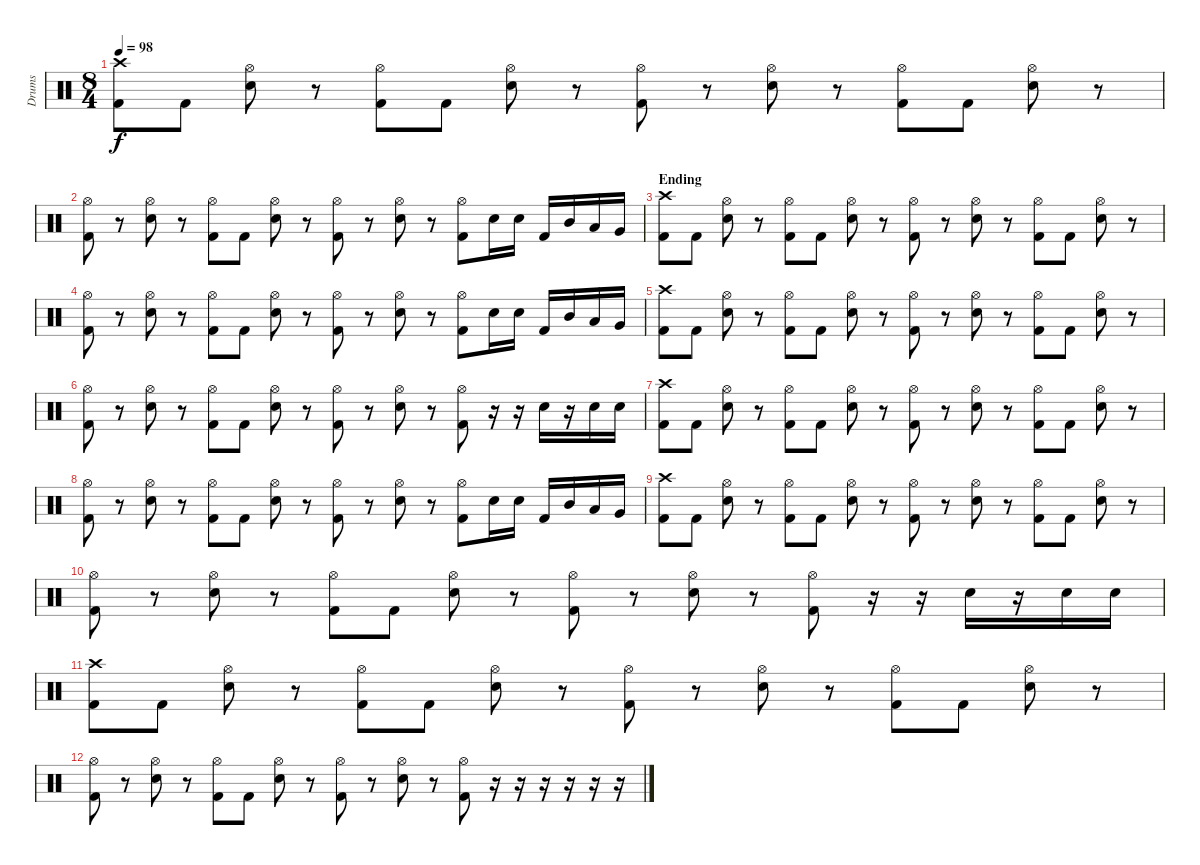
\track ("Drums" "Drums") {instrument percussion}
\staff {score}
\articulation defaults
\ts (8 4)
\tempo 98
\clef neutral
\ks c
("Crash high (hit)" "Kick (hit) 2").8{dy f} "Kick (hit) 2".8 ("Hi-Hat (open)" "Electric Snare (hit)").8 r.8 ("Hi-Hat (open)" "Kick (hit) 2").8 "Kick (hit) 2".8 ("Hi-Hat (open)" "Electric Snare (hit)").8 r.8 ("Hi-Hat (open)" "Kick (hit) 2").8 r.8 ("Hi-Hat (open)" "Electric Snare (hit)").8 r.8 ("Hi-Hat (open)" "Kick (hit) 2").8 "Kick (hit) 2".8 ("Hi-Hat (open)" "Electric Snare (hit)").8 r.8 |
("Hi-Hat (open)" "Kick (hit) 2").8 r.8 ("Hi-Hat (open)" "Electric Snare (hit)").8 r.8 ("Hi-Hat (open)" "Kick (hit) 2").8 "Kick (hit) 2".8 ("Hi-Hat (open)" "Electric Snare (hit)").8 r.8 ("Hi-Hat (open)" "Kick (hit) 2").8 r.8 ("Hi-Hat (open)" "Electric Snare (hit)").8 r.8 ("Hi-Hat (open)" "Kick (hit) 2").8 "Electric Snare (hit)".16 "Electric Snare (hit)".16 "Kick (hit) 2".16 "Mid Tom (hit)".16 "Low Tom (hit)".16 "Very Low Tom (hit)".16 |
\section ("" "Ending")
("Crash high (hit)" "Kick (hit) 2").8 "Kick (hit) 2".8 ("Hi-Hat (open)" "Electric Snare (hit)").8 r.8 ("Hi-Hat (open)" "Kick (hit) 2").8 "Kick (hit) 2".8 ("Hi-Hat (open)" "Electric Snare (hit)").8 r.8 ("Hi-Hat (open)" "Kick (hit) 2").8 r.8 ("Hi-Hat (open)" "Electric Snare (hit)").8 r.8 ("Hi-Hat (open)" "Kick (hit) 2").8 "Kick (hit) 2".8 ("Hi-Hat (open)" "Electric Snare (hit)").8 r.8 |
("Hi-Hat (open)" "Kick (hit) 2").8 r.8 ("Hi-Hat (open)" "Electric Snare (hit)").8 r.8 ("Hi-Hat (open)" "Kick (hit) 2").8 "Kick (hit) 2".8 ("Hi-Hat (open)" "Electric Snare (hit)").8 r.8 ("Hi-Hat (open)" "Kick (hit) 2").8 r.8 ("Hi-Hat (open)" "Electric Snare (hit)").8 r.8 ("Hi-Hat (open)" "Kick (hit) 2").8 "Electric Snare (hit)".16 "Electric Snare (hit)".16 "Kick (hit) 2".16 "Mid Tom (hit)".16 "Low Tom (hit)".16 "Very Low Tom (hit)".16 |
("Crash high (hit)" "Kick (hit) 2").8 "Kick (hit) 2".8 ("Hi-Hat (open)" "Electric Snare (hit)").8 r.8 ("Hi-Hat (open)" "Kick (hit) 2").8 "Kick (hit) 2".8 ("Hi-Hat (open)" "Electric Snare (hit)").8 r.8 ("Hi-Hat (open)" "Kick (hit) 2").8 r.8 ("Hi-Hat (open)" "Electric Snare (hit)").8 r.8 ("Hi-Hat (open)" "Kick (hit) 2").8 "Kick (hit) 2".8 ("Hi-Hat (open)" "Electric Snare (hit)").8 r.8 |
("Hi-Hat (open)" "Kick (hit) 2").8 r.8 ("Hi-Hat (open)" "Electric Snare (hit)").8 r.8 ("Hi-Hat (open)" "Kick (hit) 2").8 "Kick (hit) 2".8 ("Hi-Hat (open)" "Electric Snare (hit)").8 r.8 ("Hi-Hat (open)" "Kick (hit) 2").8 r.8 ("Hi-Hat (open)" "Electric Snare (hit)").8 r.8 ("Hi-Hat (open)" "Kick (hit) 2").8 r.16 r.16 "Electric Snare (hit)".16 r.16 "Electric Snare (hit)".16 "Electric Snare (hit)".16 |
("Crash high (hit)" "Kick (hit) 2").8{volume 11} "Kick (hit) 2".8 ("Hi-Hat (open)" "Electric Snare (hit)").8 r.8 ("Hi-Hat (open)" "Kick (hit) 2").8 "Kick (hit) 2".8 ("Hi-Hat (open)" "Electric Snare (hit)").8 r.8 ("Hi-Hat (open)" "Kick (hit) 2").8 r.8 ("Hi-Hat (open)" "Electric Snare (hit)").8 r.8 ("Hi-Hat (open)" "Kick (hit) 2").8 "Kick (hit) 2".8 ("Hi-Hat (open)" "Electric Snare (hit)").8 r.8 |
("Hi-Hat (open)" "Kick (hit) 2").8{volume 9} r.8 ("Hi-Hat (open)" "Electric Snare (hit)").8 r.8 ("Hi-Hat (open)" "Kick (hit) 2").8 "Kick (hit) 2".8 ("Hi-Hat (open)" "Electric Snare (hit)").8 r.8 ("Hi-Hat (open)" "Kick (hit) 2").8 r.8 ("Hi-Hat (open)" "Electric Snare (hit)").8 r.8 ("Hi-Hat (open)" "Kick (hit) 2").8 "Electric Snare (hit)".16 "Electric Snare (hit)".16 "Kick (hit) 2".16 "Mid Tom (hit)".16 "Low Tom (hit)".16 "Very Low Tom (hit)".16 |
("Crash high (hit)" "Kick (hit) 2").8{volume 7} "Kick (hit) 2".8 ("Hi-Hat (open)" "Electric Snare (hit)").8 r.8 ("Hi-Hat (open)" "Kick (hit) 2").8 "Kick (hit) 2".8 ("Hi-Hat (open)" "Electric Snare (hit)").8 r.8 ("Hi-Hat (open)" "Kick (hit) 2").8 r.8 ("Hi-Hat (open)" "Electric Snare (hit)").8 r.8 ("Hi-Hat (open)" "Kick (hit) 2").8 "Kick (hit) 2".8 ("Hi-Hat (open)" "Electric Snare (hit)").8 r.8 |
("Hi-Hat (open)" "Kick (hit) 2").8{volume 5} r.8 ("Hi-Hat (open)" "Electric Snare (hit)").8 r.8 ("Hi-Hat (open)" "Kick (hit) 2").8 "Kick (hit) 2".8 ("Hi-Hat (open)" "Electric Snare (hit)").8 r.8 ("Hi-Hat (open)" "Kick (hit) 2").8 r.8 ("Hi-Hat (open)" "Electric Snare (hit)").8 r.8 ("Hi-Hat (open)" "Kick (hit) 2").8 r.16 r.16 "Electric Snare (hit)".16 r.16 "Electric Snare (hit)".16 "Electric Snare (hit)".16 |
("Crash high (hit)" "Kick (hit) 2").8{volume 3} "Kick (hit) 2".8 ("Hi-Hat (open)" "Electric Snare (hit)").8 r.8 ("Hi-Hat (open)" "Kick (hit) 2").8 "Kick (hit) 2".8 ("Hi-Hat (open)" "Electric Snare (hit)").8 r.8 ("Hi-Hat (open)" "Kick (hit) 2").8 r.8 ("Hi-Hat (open)" "Electric Snare (hit)").8 r.8 ("Hi-Hat (open)" "Kick (hit) 2").8 "Kick (hit) 2".8 ("Hi-Hat (open)" "Electric Snare (hit)").8 r.8 |
("Hi-Hat (open)" "Kick (hit) 2").8{volume 1} r.8 ("Hi-Hat (open)" "Electric Snare (hit)").8 r.8 ("Hi-Hat (open)" "Kick (hit) 2").8 "Kick (hit) 2".8 ("Hi-Hat (open)" "Electric Snare (hit)").8 r.8 ("Hi-Hat (open)" "Kick (hit) 2").8 r.8 ("Hi-Hat (open)" "Electric Snare (hit)").8 r.8 ("Hi-Hat (open)" "Kick (hit) 2").8 r.16 r.16 r.16 r.16 r.16 r.16
